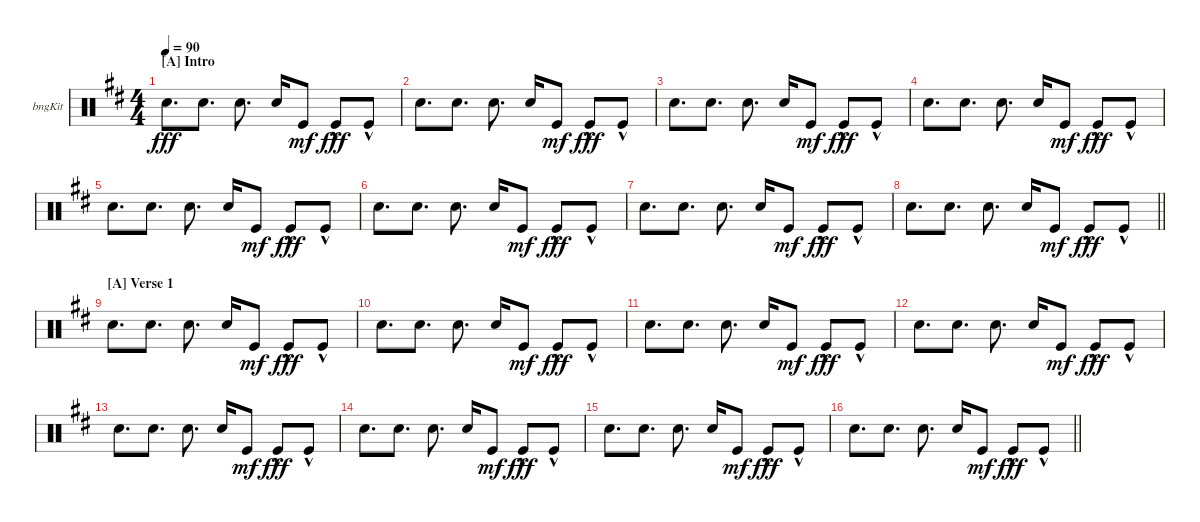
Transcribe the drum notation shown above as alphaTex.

\defaultSystemsLayout 4
\bracketExtendMode groupsimilarinstruments
\firstSystemTrackNameOrientation horizontal
\otherSystemsTrackNameOrientation horizontal
\track ("hi & lo synth drum" "bngKit") {instrument percussion}
\staff {score}
\articulation defaults
\ts (4 4)
\section ("A" "Intro")
\tempo 90
\clef neutral
\scale
0.315574
\ks d "Snare (hit) 2".8{d dy fff} "Snare (hit) 2".8{d} "Snare (hit) 2".8{d} "Snare (hit) 2".16 "Kick (hit)".8{dy mf} "Kick (hit)"{hac}.8{dy fff} "Kick (hit)"{hac}.8
|
\scale
0.228142 "Snare (hit) 2".8{d} "Snare (hit) 2".8{d} "Snare (hit) 2".8{d} "Snare (hit) 2".16 "Kick (hit)".8{dy mf} "Kick (hit)"{hac}.8{dy fff} "Kick (hit)"{hac}.8 |
\scale
0.228142 "Snare (hit) 2".8{d} "Snare (hit) 2".8{d} "Snare (hit) 2".8{d} "Snare (hit) 2".16 "Kick (hit)".8{dy mf} "Kick (hit)"{hac}.8{dy fff} "Kick (hit)"{hac}.8 |
\scale
0.228142 "Snare (hit) 2".8{d} "Snare (hit) 2".8{d} "Snare (hit) 2".8{d} "Snare (hit) 2".16 "Kick (hit)".8{dy mf} "Kick (hit)"{hac}.8{dy fff} "Kick (hit)"{hac}.8 |
\scale
0.25 "Snare (hit) 2".8{d} "Snare (hit) 2".8{d} "Snare (hit) 2".8{d} "Snare (hit) 2".16 "Kick (hit)".8{dy mf} "Kick (hit)"{hac}.8{dy fff} "Kick (hit)"{hac}.8 |
\scale
0.25 "Snare (hit) 2".8{d} "Snare (hit) 2".8{d} "Snare (hit) 2".8{d} "Snare (hit) 2".16 "Kick (hit)".8{dy mf} "Kick (hit)"{hac}.8{dy fff} "Kick (hit)"{hac}.8 |
\scale
0.25 "Snare (hit) 2".8{d} "Snare (hit) 2".8{d} "Snare (hit) 2".8{d} "Snare (hit) 2".16 "Kick (hit)".8{dy mf} "Kick (hit)"{hac}.8{dy fff} "Kick (hit)"{hac}.8 |
\scale
0.25
\barLineRight lightlight "Snare (hit) 2".8{d} "Snare (hit) 2".8{d} "Snare (hit) 2".8{d} "Snare (hit) 2".16 "Kick (hit)".8{dy mf} "Kick (hit)"{hac}.8{dy fff} "Kick (hit)"{hac}.8
|
\section ("A" "Verse 1")
\scale
0.25 "Snare (hit) 2".8{d} "Snare (hit) 2".8{d} "Snare (hit) 2".8{d} "Snare (hit) 2".16 "Kick (hit)".8{dy mf} "Kick (hit)"{hac}.8{dy fff} "Kick (hit)"{hac}.8 |
\scale
0.25 "Snare (hit) 2".8{d} "Snare (hit) 2".8{d} "Snare (hit) 2".8{d} "Snare (hit) 2".16 "Kick (hit)".8{dy mf} "Kick (hit)"{hac}.8{dy fff} "Kick (hit)"{hac}.8 |
\scale
0.25 "Snare (hit) 2".8{d} "Snare (hit) 2".8{d} "Snare (hit) 2".8{d} "Snare (hit) 2".16 "Kick (hit)".8{dy mf} "Kick (hit)"{hac}.8{dy fff} "Kick (hit)"{hac}.8 |
\scale
0.25 "Snare (hit) 2".8{d} "Snare (hit) 2".8{d} "Snare (hit) 2".8{d} "Snare (hit) 2".16 "Kick (hit)".8{dy mf} "Kick (hit)"{hac}.8{dy fff} "Kick (hit)"{hac}.8 |
\scale
0.25 "Snare (hit) 2".8{d} "Snare (hit) 2".8{d} "Snare (hit) 2".8{d} "Snare (hit) 2".16 "Kick (hit)".8{dy mf} "Kick (hit)"{hac}.8{dy fff} "Kick (hit)"{hac}.8 |
\scale
0.25 "Snare (hit) 2".8{d} "Snare (hit) 2".8{d} "Snare (hit) 2".8{d} "Snare (hit) 2".16 "Kick (hit)".8{dy mf} "Kick (hit)"{hac}.8{dy fff} "Kick (hit)"{hac}.8 |
\scale
0.25 "Snare (hit) 2".8{d} "Snare (hit) 2".8{d} "Snare (hit) 2".8{d} "Snare (hit) 2".16 "Kick (hit)".8{dy mf} "Kick (hit)"{hac}.8{dy fff} "Kick (hit)"{hac}.8 |
\scale
0.25
\barLineRight lightlight "Snare (hit) 2".8{d} "Snare (hit) 2".8{d} "Snare (hit) 2".8{d} "Snare (hit) 2".16 "Kick (hit)".8{dy mf} "Kick (hit)"{hac}.8{dy fff} "Kick (hit)"{hac}.8
